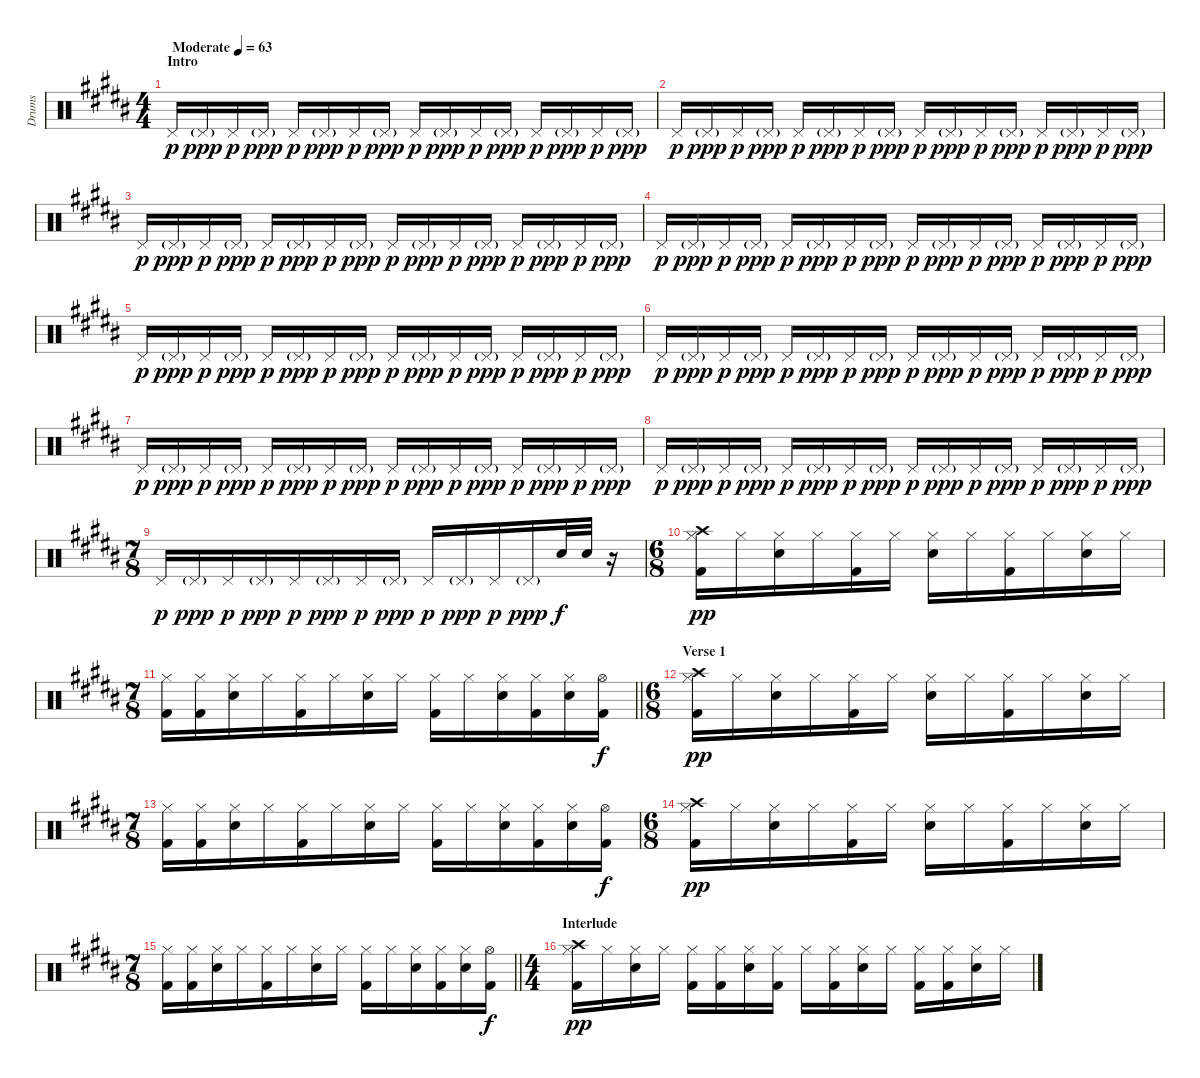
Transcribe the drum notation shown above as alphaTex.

\track ("Drums" "Drums") {instrument percussion}
\staff {score}
\articulation defaults
\ts (4 4)
\section ("" "Intro")
\tempo (63 "Moderate")
\clef neutral
\ks b "Pedal Hi-Hat (hit)".16{dy p} "Pedal Hi-Hat (hit)"{g}.16{dy ppp} "Pedal Hi-Hat (hit)".16{dy p} "Pedal Hi-Hat (hit)"{g}.16{dy ppp} "Pedal Hi-Hat (hit)".16{dy p} "Pedal Hi-Hat (hit)"{g}.16{dy ppp} "Pedal Hi-Hat (hit)".16{dy p} "Pedal Hi-Hat (hit)"{g}.16{dy ppp} "Pedal Hi-Hat (hit)".16{dy p} "Pedal Hi-Hat (hit)"{g}.16{dy ppp} "Pedal Hi-Hat (hit)".16{dy p} "Pedal Hi-Hat (hit)"{g}.16{dy ppp} "Pedal Hi-Hat (hit)".16{dy p} "Pedal Hi-Hat (hit)"{g}.16{dy ppp} "Pedal Hi-Hat (hit)".16{dy p} "Pedal Hi-Hat (hit)"{g}.16{dy ppp}
|
"Pedal Hi-Hat (hit)".16{dy p} "Pedal Hi-Hat (hit)"{g}.16{dy ppp} "Pedal Hi-Hat (hit)".16{dy p} "Pedal Hi-Hat (hit)"{g}.16{dy ppp} "Pedal Hi-Hat (hit)".16{dy p} "Pedal Hi-Hat (hit)"{g}.16{dy ppp} "Pedal Hi-Hat (hit)".16{dy p} "Pedal Hi-Hat (hit)"{g}.16{dy ppp} "Pedal Hi-Hat (hit)".16{dy p} "Pedal Hi-Hat (hit)"{g}.16{dy ppp} "Pedal Hi-Hat (hit)".16{dy p} "Pedal Hi-Hat (hit)"{g}.16{dy ppp} "Pedal Hi-Hat (hit)".16{dy p} "Pedal Hi-Hat (hit)"{g}.16{dy ppp} "Pedal Hi-Hat (hit)".16{dy p} "Pedal Hi-Hat (hit)"{g}.16{dy ppp} |
"Pedal Hi-Hat (hit)".16{dy p} "Pedal Hi-Hat (hit)"{g}.16{dy ppp} "Pedal Hi-Hat (hit)".16{dy p} "Pedal Hi-Hat (hit)"{g}.16{dy ppp} "Pedal Hi-Hat (hit)".16{dy p} "Pedal Hi-Hat (hit)"{g}.16{dy ppp} "Pedal Hi-Hat (hit)".16{dy p} "Pedal Hi-Hat (hit)"{g}.16{dy ppp} "Pedal Hi-Hat (hit)".16{dy p} "Pedal Hi-Hat (hit)"{g}.16{dy ppp} "Pedal Hi-Hat (hit)".16{dy p} "Pedal Hi-Hat (hit)"{g}.16{dy ppp} "Pedal Hi-Hat (hit)".16{dy p} "Pedal Hi-Hat (hit)"{g}.16{dy ppp} "Pedal Hi-Hat (hit)".16{dy p} "Pedal Hi-Hat (hit)"{g}.16{dy ppp} |
"Pedal Hi-Hat (hit)".16{dy p} "Pedal Hi-Hat (hit)"{g}.16{dy ppp} "Pedal Hi-Hat (hit)".16{dy p} "Pedal Hi-Hat (hit)"{g}.16{dy ppp} "Pedal Hi-Hat (hit)".16{dy p} "Pedal Hi-Hat (hit)"{g}.16{dy ppp} "Pedal Hi-Hat (hit)".16{dy p} "Pedal Hi-Hat (hit)"{g}.16{dy ppp} "Pedal Hi-Hat (hit)".16{dy p} "Pedal Hi-Hat (hit)"{g}.16{dy ppp} "Pedal Hi-Hat (hit)".16{dy p} "Pedal Hi-Hat (hit)"{g}.16{dy ppp} "Pedal Hi-Hat (hit)".16{dy p} "Pedal Hi-Hat (hit)"{g}.16{dy ppp} "Pedal Hi-Hat (hit)".16{dy p} "Pedal Hi-Hat (hit)"{g}.16{dy ppp} |
"Pedal Hi-Hat (hit)".16{dy p} "Pedal Hi-Hat (hit)"{g}.16{dy ppp} "Pedal Hi-Hat (hit)".16{dy p} "Pedal Hi-Hat (hit)"{g}.16{dy ppp} "Pedal Hi-Hat (hit)".16{dy p} "Pedal Hi-Hat (hit)"{g}.16{dy ppp} "Pedal Hi-Hat (hit)".16{dy p} "Pedal Hi-Hat (hit)"{g}.16{dy ppp} "Pedal Hi-Hat (hit)".16{dy p} "Pedal Hi-Hat (hit)"{g}.16{dy ppp} "Pedal Hi-Hat (hit)".16{dy p} "Pedal Hi-Hat (hit)"{g}.16{dy ppp} "Pedal Hi-Hat (hit)".16{dy p} "Pedal Hi-Hat (hit)"{g}.16{dy ppp} "Pedal Hi-Hat (hit)".16{dy p} "Pedal Hi-Hat (hit)"{g}.16{dy ppp} |
"Pedal Hi-Hat (hit)".16{dy p} "Pedal Hi-Hat (hit)"{g}.16{dy ppp} "Pedal Hi-Hat (hit)".16{dy p} "Pedal Hi-Hat (hit)"{g}.16{dy ppp} "Pedal Hi-Hat (hit)".16{dy p} "Pedal Hi-Hat (hit)"{g}.16{dy ppp} "Pedal Hi-Hat (hit)".16{dy p} "Pedal Hi-Hat (hit)"{g}.16{dy ppp} "Pedal Hi-Hat (hit)".16{dy p} "Pedal Hi-Hat (hit)"{g}.16{dy ppp} "Pedal Hi-Hat (hit)".16{dy p} "Pedal Hi-Hat (hit)"{g}.16{dy ppp} "Pedal Hi-Hat (hit)".16{dy p} "Pedal Hi-Hat (hit)"{g}.16{dy ppp} "Pedal Hi-Hat (hit)".16{dy p} "Pedal Hi-Hat (hit)"{g}.16{dy ppp} |
"Pedal Hi-Hat (hit)".16{dy p} "Pedal Hi-Hat (hit)"{g}.16{dy ppp} "Pedal Hi-Hat (hit)".16{dy p} "Pedal Hi-Hat (hit)"{g}.16{dy ppp} "Pedal Hi-Hat (hit)".16{dy p} "Pedal Hi-Hat (hit)"{g}.16{dy ppp} "Pedal Hi-Hat (hit)".16{dy p} "Pedal Hi-Hat (hit)"{g}.16{dy ppp} "Pedal Hi-Hat (hit)".16{dy p} "Pedal Hi-Hat (hit)"{g}.16{dy ppp} "Pedal Hi-Hat (hit)".16{dy p} "Pedal Hi-Hat (hit)"{g}.16{dy ppp} "Pedal Hi-Hat (hit)".16{dy p} "Pedal Hi-Hat (hit)"{g}.16{dy ppp} "Pedal Hi-Hat (hit)".16{dy p} "Pedal Hi-Hat (hit)"{g}.16{dy ppp} |
"Pedal Hi-Hat (hit)".16{dy p} "Pedal Hi-Hat (hit)"{g}.16{dy ppp} "Pedal Hi-Hat (hit)".16{dy p} "Pedal Hi-Hat (hit)"{g}.16{dy ppp} "Pedal Hi-Hat (hit)".16{dy p} "Pedal Hi-Hat (hit)"{g}.16{dy ppp} "Pedal Hi-Hat (hit)".16{dy p} "Pedal Hi-Hat (hit)"{g}.16{dy ppp} "Pedal Hi-Hat (hit)".16{dy p} "Pedal Hi-Hat (hit)"{g}.16{dy ppp} "Pedal Hi-Hat (hit)".16{dy p} "Pedal Hi-Hat (hit)"{g}.16{dy ppp} "Pedal Hi-Hat (hit)".16{dy p} "Pedal Hi-Hat (hit)"{g}.16{dy ppp} "Pedal Hi-Hat (hit)".16{dy p} "Pedal Hi-Hat (hit)"{g}.16{dy ppp} |
\ts (7 8)
"Pedal Hi-Hat (hit)".16{dy p} "Pedal Hi-Hat (hit)"{g}.16{dy ppp} "Pedal Hi-Hat (hit)".16{dy p} "Pedal Hi-Hat (hit)"{g}.16{dy ppp} "Pedal Hi-Hat (hit)".16{dy p} "Pedal Hi-Hat (hit)"{g}.16{dy ppp} "Pedal Hi-Hat (hit)".16{dy p} "Pedal Hi-Hat (hit)"{g}.16{dy ppp} "Pedal Hi-Hat (hit)".16{dy p} "Pedal Hi-Hat (hit)"{g}.16{dy ppp} "Pedal Hi-Hat (hit)".16{dy p} "Pedal Hi-Hat (hit)"{g}.16{dy ppp} "Snare (hit) 2".32{dy f} "Snare (hit) 2".32 r.16 |
\ts (6 8)
("Crash high (hit)" "Hi-Hat (closed)" "Kick (hit) 2").16{dy pp} "Hi-Hat (closed)".16 ("Snare (hit) 2" "Hi-Hat (closed)").16 "Hi-Hat (closed)".16 ("Hi-Hat (closed)" "Kick (hit) 2").16 "Hi-Hat (closed)".16 ("Snare (hit) 2" "Hi-Hat (closed)").16 "Hi-Hat (closed)".16 ("Hi-Hat (closed)" "Kick (hit) 2").16 "Hi-Hat (closed)".16 ("Snare (hit) 2" "Hi-Hat (closed)").16 "Hi-Hat (closed)".16 |
\ts (7 8)
\barLineRight lightlight
("Hi-Hat (closed)" "Kick (hit) 2").16 ("Hi-Hat (closed)" "Kick (hit) 2").16 ("Snare (hit) 2" "Hi-Hat (closed)").16 "Hi-Hat (closed)".16 ("Hi-Hat (closed)" "Kick (hit) 2").16 "Hi-Hat (closed)".16 ("Snare (hit) 2" "Hi-Hat (closed)").16 "Hi-Hat (closed)".16 ("Hi-Hat (closed)" "Kick (hit) 2").16 "Hi-Hat (closed)".16 ("Snare (hit) 2" "Hi-Hat (closed)").16 ("Hi-Hat (closed)" "Kick (hit) 2").16 ("Snare (hit) 2" "Hi-Hat (closed)").16 ("Hi-Hat (open)" "Kick (hit) 2").16{dy f} |
\ts (6 8)
\section ("" "Verse 1")
("Crash high (hit)" "Hi-Hat (closed)" "Kick (hit) 2").16{dy pp} "Hi-Hat (closed)".16 ("Snare (hit) 2" "Hi-Hat (closed)").16 "Hi-Hat (closed)".16 ("Hi-Hat (closed)" "Kick (hit) 2").16 "Hi-Hat (closed)".16 ("Snare (hit) 2" "Hi-Hat (closed)").16 "Hi-Hat (closed)".16 ("Hi-Hat (closed)" "Kick (hit) 2").16 "Hi-Hat (closed)".16 ("Snare (hit) 2" "Hi-Hat (closed)").16 "Hi-Hat (closed)".16 |
\ts (7 8)
("Hi-Hat (closed)" "Kick (hit) 2").16 ("Hi-Hat (closed)" "Kick (hit) 2").16 ("Snare (hit) 2" "Hi-Hat (closed)").16 "Hi-Hat (closed)".16 ("Hi-Hat (closed)" "Kick (hit) 2").16 "Hi-Hat (closed)".16 ("Snare (hit) 2" "Hi-Hat (closed)").16 "Hi-Hat (closed)".16 ("Hi-Hat (closed)" "Kick (hit) 2").16 "Hi-Hat (closed)".16 ("Snare (hit) 2" "Hi-Hat (closed)").16 ("Hi-Hat (closed)" "Kick (hit) 2").16 ("Snare (hit) 2" "Hi-Hat (closed)").16 ("Hi-Hat (open)" "Kick (hit) 2").16{dy f} |
\ts (6 8)
("Crash high (hit)" "Hi-Hat (closed)" "Kick (hit) 2").16{dy pp} "Hi-Hat (closed)".16 ("Snare (hit) 2" "Hi-Hat (closed)").16 "Hi-Hat (closed)".16 ("Hi-Hat (closed)" "Kick (hit) 2").16 "Hi-Hat (closed)".16 ("Snare (hit) 2" "Hi-Hat (closed)").16 "Hi-Hat (closed)".16 ("Hi-Hat (closed)" "Kick (hit) 2").16 "Hi-Hat (closed)".16 ("Snare (hit) 2" "Hi-Hat (closed)").16 "Hi-Hat (closed)".16 |
\ts (7 8)
\barLineRight lightlight
("Hi-Hat (closed)" "Kick (hit) 2").16 ("Hi-Hat (closed)" "Kick (hit) 2").16 ("Snare (hit) 2" "Hi-Hat (closed)").16 "Hi-Hat (closed)".16 ("Hi-Hat (closed)" "Kick (hit) 2").16 "Hi-Hat (closed)".16 ("Snare (hit) 2" "Hi-Hat (closed)").16 "Hi-Hat (closed)".16 ("Hi-Hat (closed)" "Kick (hit) 2").16 "Hi-Hat (closed)".16 ("Snare (hit) 2" "Hi-Hat (closed)").16 ("Hi-Hat (closed)" "Kick (hit) 2").16 ("Snare (hit) 2" "Hi-Hat (closed)").16 ("Hi-Hat (open)" "Kick (hit) 2").16{dy f} |
\ts (4 4)
\section ("" "Interlude")
("Crash high (hit)" "Hi-Hat (closed)" "Kick (hit) 2").16{dy pp} "Hi-Hat (closed)".16 ("Snare (hit) 2" "Hi-Hat (closed)").16 "Hi-Hat (closed)".16 ("Hi-Hat (closed)" "Kick (hit) 2").16 ("Hi-Hat (closed)" "Kick (hit) 2").16 ("Snare (hit) 2" "Hi-Hat (closed)").16 ("Hi-Hat (closed)" "Kick (hit) 2").16 "Hi-Hat (closed)".16 ("Hi-Hat (closed)" "Kick (hit) 2").16 ("Snare (hit) 2" "Hi-Hat (closed)").16 "Hi-Hat (closed)".16 ("Hi-Hat (closed)" "Kick (hit) 2").16 ("Hi-Hat (closed)" "Kick (hit) 2").16 ("Snare (hit) 2" "Hi-Hat (closed)").16 "Hi-Hat (closed)".16
